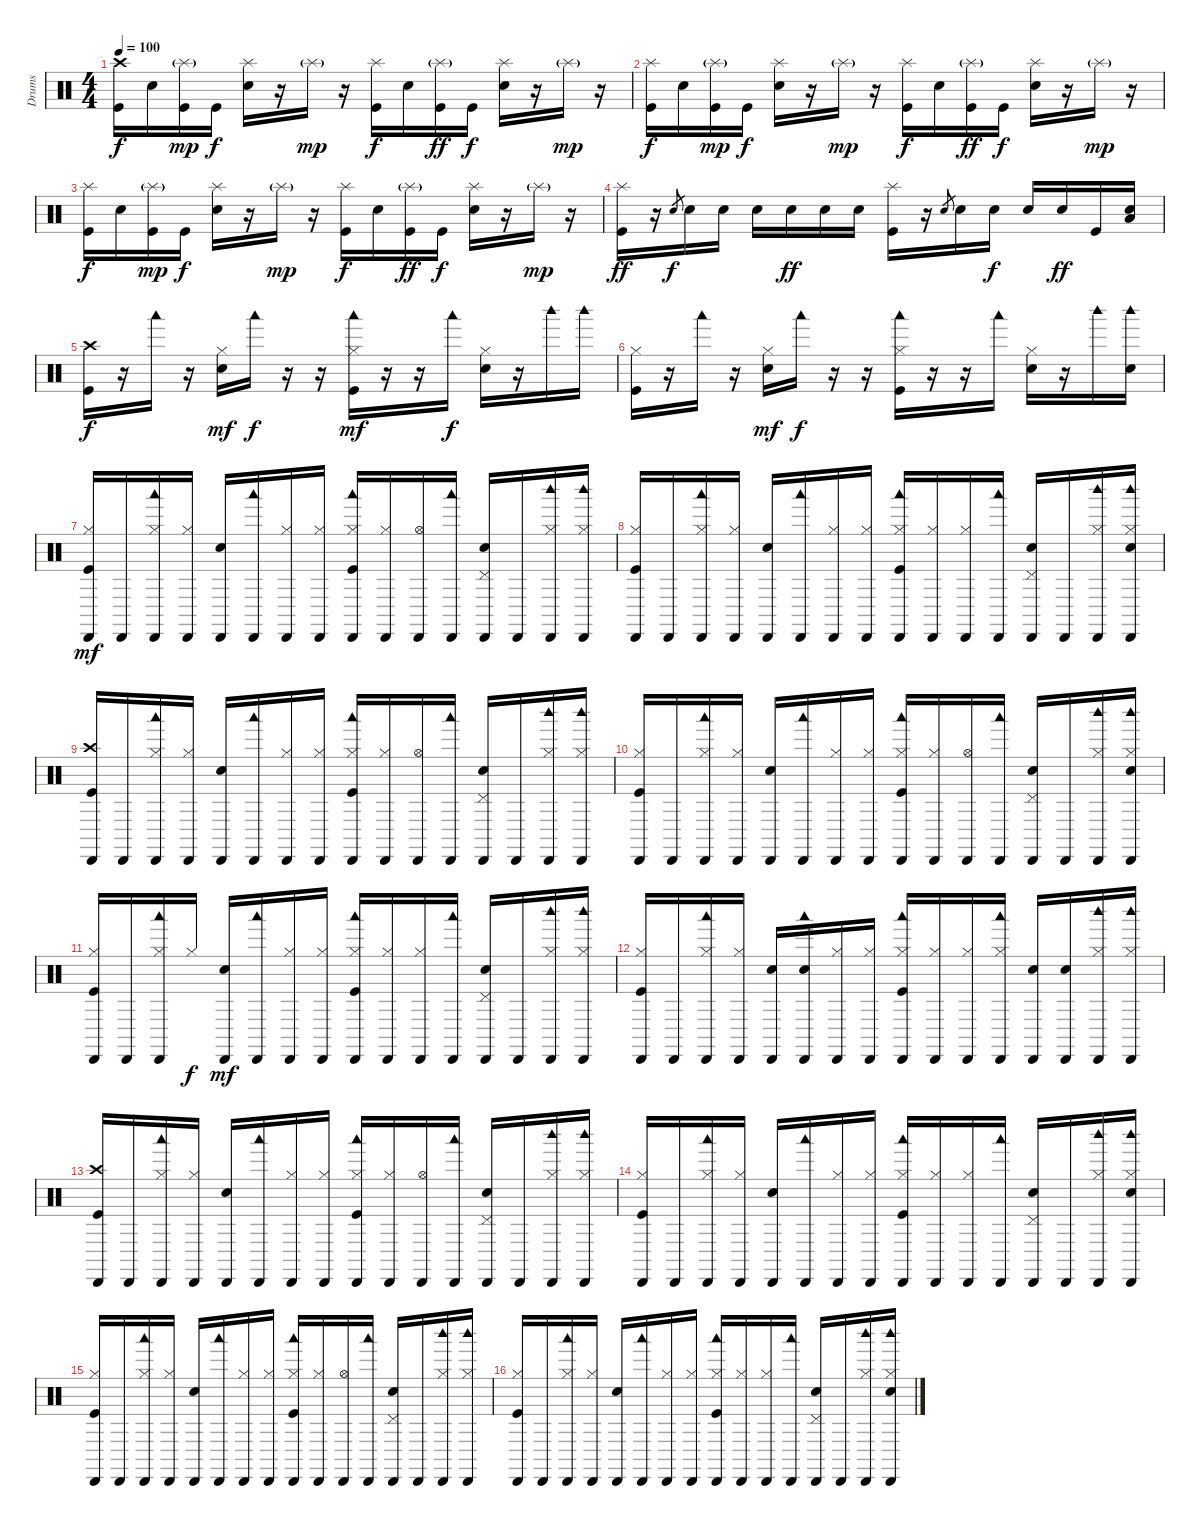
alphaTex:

\track ("Drums" "Drums") {instrument percussion}
\staff {score}
\articulation defaults
\ts (4 4)
\tempo 100
\clef neutral
\ks c
("Crash high (hit)" "Kick (hit)").16{dy f} "Snare (hit) 2".16 ("Splash (hit)"{g} "Kick (hit)").16{dy mp} "Kick (hit)".16{dy f} ("Splash (hit)" "Snare (hit) 2").16 r.16 "Splash (hit)"{g}.16{dy mp} r.16 ("Splash (hit)" "Kick (hit)").16{dy f} "Snare (hit) 2".16 ("Splash (hit)"{g} "Kick (hit)").16{dy ff} "Kick (hit)".16{dy f} ("Splash (hit)" "Snare (hit) 2").16 r.16 "Splash (hit)"{g}.16{dy mp} r.16 |
("Splash (hit)" "Kick (hit)").16{dy f} "Snare (hit) 2".16 ("Splash (hit)"{g} "Kick (hit)").16{dy mp} "Kick (hit)".16{dy f} ("Splash (hit)" "Snare (hit) 2").16 r.16 "Splash (hit)"{g}.16{dy mp} r.16 ("Splash (hit)" "Kick (hit)").16{dy f} "Snare (hit) 2".16 ("Splash (hit)"{g} "Kick (hit)").16{dy ff} "Kick (hit)".16{dy f} ("Splash (hit)" "Snare (hit) 2").16 r.16 "Splash (hit)"{g}.16{dy mp} r.16 |
("Splash (hit)" "Kick (hit)").16{dy f} "Snare (hit) 2".16 ("Splash (hit)"{g} "Kick (hit)").16{dy mp} "Kick (hit)".16{dy f} ("Splash (hit)" "Snare (hit) 2").16 r.16 "Splash (hit)"{g}.16{dy mp} r.16 ("Splash (hit)" "Kick (hit)").16{dy f} "Snare (hit) 2".16 ("Splash (hit)"{g} "Kick (hit)").16{dy ff} "Kick (hit)".16{dy f} ("Splash (hit)" "Snare (hit) 2").16 r.16 "Splash (hit)"{g}.16{dy mp} r.16 |
("Splash (hit)" "Kick (hit)").16{dy ff} r.16 "Snare (hit) 2".8{gr dy f} "Snare (hit) 2".16 "Snare (hit) 2".16 "Snare (hit) 2".16 "Snare (hit) 2".16{dy ff} "Snare (hit) 2".16 "Snare (hit) 2".16 ("Splash (hit)" "Kick (hit)").16 r.16 "Snare (hit) 2".8{gr} "Snare (hit) 2".16 "Snare (hit) 2".16{dy f} "Snare (hit) 2".16 "Snare (hit) 2".16{dy ff} "Kick (hit)".16 ("Low Floor Tom (hit)" "Snare (hit) 2").16 |
("Kick (hit)" "Crash high (hit)").16{dy f} r.16 "Woodblock low (hit)".16 r.16 ("Snare (hit) 2" "Hi-Hat (closed)").16{dy mf} "Woodblock low (hit)".16{dy f} r.16 r.16 ("Kick (hit)" "Hi-Hat (closed)" "Woodblock low (hit)").16{dy mf} r.16 r.16 "Woodblock low (hit)".16{dy f} ("Snare (hit) 2" "Hi-Hat (closed)").16 r.16 "Woodblock high (hit)".16 "Woodblock high (hit)".16 |
("Kick (hit)" "Hi-Hat (closed)").16 r.16 "Woodblock low (hit)".16 r.16 ("Snare (hit) 2" "Hi-Hat (closed)").16{dy mf} "Woodblock low (hit)".16{dy f} r.16 r.16 ("Kick (hit)" "Hi-Hat (closed)" "Woodblock low (hit)").16 r.16 r.16 "Woodblock low (hit)".16 ("Snare (hit) 2" "Hi-Hat (closed)").16 r.16 "Woodblock high (hit)".16 ("Snare (hit) 2" "Woodblock high (hit)").16 |
("Kick (hit)" "Hi-Hat (closed)" "Cabasa (hit)").16{dy mf} "Cabasa (hit)".16 ("Hi-Hat (closed)" "Woodblock low (hit)" "Cabasa (hit)").16 ("Hi-Hat (closed)" "Cabasa (hit)").16 ("Snare (hit) 2" "Cabasa (hit)").16 ("Woodblock low (hit)" "Cabasa (hit)").16 ("Hi-Hat (closed)" "Cabasa (hit)").16 ("Hi-Hat (closed)" "Cabasa (hit)").16 ("Kick (hit)" "Hi-Hat (closed)" "Woodblock low (hit)" "Cabasa (hit)").16 ("Hi-Hat (closed)" "Cabasa (hit)").16 ("Hi-Hat (open)" "Cabasa (hit)").16 ("Woodblock low (hit)" "Cabasa (hit)").16 ("Snare (hit) 2" "Pedal Hi-Hat (hit)" "Cabasa (hit)").16 "Cabasa (hit)".16 ("Hi-Hat (closed)" "Woodblock high (hit)" "Cabasa (hit)").16 ("Hi-Hat (closed)" "Woodblock high (hit)" "Cabasa (hit)").16 |
("Kick (hit)" "Hi-Hat (closed)" "Cabasa (hit)").16 "Cabasa (hit)".16 ("Hi-Hat (closed)" "Woodblock low (hit)" "Cabasa (hit)").16 ("Hi-Hat (closed)" "Cabasa (hit)").16 ("Snare (hit) 2" "Cabasa (hit)").16 ("Woodblock low (hit)" "Cabasa (hit)").16 ("Hi-Hat (closed)" "Cabasa (hit)").16 ("Hi-Hat (closed)" "Cabasa (hit)").16 ("Kick (hit)" "Hi-Hat (closed)" "Woodblock low (hit)" "Cabasa (hit)").16 ("Hi-Hat (closed)" "Cabasa (hit)").16 ("Hi-Hat (closed)" "Cabasa (hit)").16 ("Woodblock low (hit)" "Cabasa (hit)").16 ("Snare (hit) 2" "Pedal Hi-Hat (hit)" "Cabasa (hit)").16 "Cabasa (hit)".16 ("Hi-Hat (closed)" "Woodblock high (hit)" "Cabasa (hit)").16 ("Snare (hit) 2" "Hi-Hat (closed)" "Woodblock high (hit)" "Cabasa (hit)").16 |
("Kick (hit)" "Crash high (hit)" "Cabasa (hit)").16 "Cabasa (hit)".16 ("Hi-Hat (closed)" "Woodblock low (hit)" "Cabasa (hit)").16 ("Hi-Hat (closed)" "Cabasa (hit)").16 ("Snare (hit) 2" "Cabasa (hit)").16 ("Woodblock low (hit)" "Cabasa (hit)").16 ("Hi-Hat (closed)" "Cabasa (hit)").16 ("Hi-Hat (closed)" "Cabasa (hit)").16 ("Kick (hit)" "Hi-Hat (closed)" "Woodblock low (hit)" "Cabasa (hit)").16 ("Hi-Hat (closed)" "Cabasa (hit)").16 ("Hi-Hat (open)" "Cabasa (hit)").16 ("Woodblock low (hit)" "Cabasa (hit)").16 ("Snare (hit) 2" "Pedal Hi-Hat (hit)" "Cabasa (hit)").16 "Cabasa (hit)".16 ("Hi-Hat (closed)" "Woodblock high (hit)" "Cabasa (hit)").16 ("Hi-Hat (closed)" "Woodblock high (hit)" "Cabasa (hit)").16 |
("Kick (hit)" "Hi-Hat (closed)" "Cabasa (hit)").16 "Cabasa (hit)".16 ("Hi-Hat (closed)" "Woodblock low (hit)" "Cabasa (hit)").16 ("Hi-Hat (closed)" "Cabasa (hit)").16 ("Snare (hit) 2" "Cabasa (hit)").16 ("Woodblock low (hit)" "Cabasa (hit)").16 ("Hi-Hat (closed)" "Cabasa (hit)").16 ("Hi-Hat (closed)" "Cabasa (hit)").16 ("Kick (hit)" "Hi-Hat (closed)" "Woodblock low (hit)" "Cabasa (hit)").16 ("Hi-Hat (closed)" "Cabasa (hit)").16 ("Hi-Hat (open)" "Cabasa (hit)").16 ("Woodblock low (hit)" "Cabasa (hit)").16 ("Snare (hit) 2" "Pedal Hi-Hat (hit)" "Cabasa (hit)").16 "Cabasa (hit)".16 ("Hi-Hat (closed)" "Woodblock high (hit)" "Cabasa (hit)").16 ("Snare (hit) 2" "Hi-Hat (closed)" "Woodblock high (hit)" "Cabasa (hit)").16 |
("Kick (hit)" "Hi-Hat (closed)" "Cabasa (hit)").16 "Cabasa (hit)".16 ("Hi-Hat (closed)" "Woodblock low (hit)" "Cabasa (hit)").16 "Hi-Hat (closed)".16{dy f} ("Snare (hit) 2" "Cabasa (hit)").16{dy mf} ("Woodblock low (hit)" "Cabasa (hit)").16 ("Hi-Hat (closed)" "Cabasa (hit)").16 ("Hi-Hat (closed)" "Cabasa (hit)").16 ("Kick (hit)" "Hi-Hat (closed)" "Woodblock low (hit)" "Cabasa (hit)").16 ("Hi-Hat (closed)" "Cabasa (hit)").16 ("Hi-Hat (closed)" "Cabasa (hit)").16 ("Woodblock low (hit)" "Cabasa (hit)").16 ("Snare (hit) 2" "Pedal Hi-Hat (hit)" "Cabasa (hit)").16 "Cabasa (hit)".16 ("Hi-Hat (closed)" "Woodblock high (hit)" "Cabasa (hit)").16 ("Hi-Hat (closed)" "Woodblock high (hit)" "Cabasa (hit)").16 |
("Kick (hit)" "Hi-Hat (closed)" "Cabasa (hit)").16 "Cabasa (hit)".16 ("Hi-Hat (closed)" "Woodblock low (hit)" "Cabasa (hit)").16 ("Hi-Hat (closed)" "Cabasa (hit)").16 ("Snare (hit) 2" "Cabasa (hit)").16 ("Snare (hit) 2" "Woodblock low (hit)" "Cabasa (hit)").16 ("Hi-Hat (closed)" "Cabasa (hit)").16 ("Hi-Hat (closed)" "Cabasa (hit)").16 ("Kick (hit)" "Hi-Hat (closed)" "Woodblock low (hit)" "Cabasa (hit)").16 ("Hi-Hat (closed)" "Cabasa (hit)").16 ("Hi-Hat (closed)" "Cabasa (hit)").16 ("Hi-Hat (closed)" "Woodblock low (hit)" "Cabasa (hit)").16 ("Snare (hit) 2" "Cabasa (hit)").16 ("Snare (hit) 2" "Cabasa (hit)").16 ("Hi-Hat (closed)" "Woodblock high (hit)" "Cabasa (hit)").16 ("Hi-Hat (closed)" "Woodblock high (hit)" "Cabasa (hit)").16 |
("Kick (hit)" "Crash high (hit)" "Cabasa (hit)").16 "Cabasa (hit)".16 ("Hi-Hat (closed)" "Woodblock low (hit)" "Cabasa (hit)").16 ("Hi-Hat (closed)" "Cabasa (hit)").16 ("Snare (hit) 2" "Cabasa (hit)").16 ("Woodblock low (hit)" "Cabasa (hit)").16 ("Hi-Hat (closed)" "Cabasa (hit)").16 ("Hi-Hat (closed)" "Cabasa (hit)").16 ("Kick (hit)" "Hi-Hat (closed)" "Woodblock low (hit)" "Cabasa (hit)").16 ("Hi-Hat (closed)" "Cabasa (hit)").16 ("Hi-Hat (open)" "Cabasa (hit)").16 ("Woodblock low (hit)" "Cabasa (hit)").16 ("Snare (hit) 2" "Pedal Hi-Hat (hit)" "Cabasa (hit)").16 "Cabasa (hit)".16 ("Hi-Hat (closed)" "Woodblock high (hit)" "Cabasa (hit)").16 ("Hi-Hat (closed)" "Woodblock high (hit)" "Cabasa (hit)").16 |
("Kick (hit)" "Hi-Hat (closed)" "Cabasa (hit)").16 "Cabasa (hit)".16 ("Hi-Hat (closed)" "Woodblock low (hit)" "Cabasa (hit)").16 ("Hi-Hat (closed)" "Cabasa (hit)").16 ("Snare (hit) 2" "Cabasa (hit)").16 ("Woodblock low (hit)" "Cabasa (hit)").16 ("Hi-Hat (closed)" "Cabasa (hit)").16 ("Hi-Hat (closed)" "Cabasa (hit)").16 ("Kick (hit)" "Hi-Hat (closed)" "Woodblock low (hit)" "Cabasa (hit)").16 ("Hi-Hat (closed)" "Cabasa (hit)").16 ("Hi-Hat (closed)" "Cabasa (hit)").16 ("Woodblock low (hit)" "Cabasa (hit)").16 ("Snare (hit) 2" "Pedal Hi-Hat (hit)" "Cabasa (hit)").16 "Cabasa (hit)".16 ("Hi-Hat (closed)" "Woodblock high (hit)" "Cabasa (hit)").16 ("Snare (hit) 2" "Hi-Hat (closed)" "Woodblock high (hit)" "Cabasa (hit)").16 |
("Kick (hit)" "Hi-Hat (closed)" "Cabasa (hit)").16 "Cabasa (hit)".16 ("Hi-Hat (closed)" "Woodblock low (hit)" "Cabasa (hit)").16 ("Hi-Hat (closed)" "Cabasa (hit)").16 ("Snare (hit) 2" "Cabasa (hit)").16 ("Woodblock low (hit)" "Cabasa (hit)").16 ("Hi-Hat (closed)" "Cabasa (hit)").16 ("Hi-Hat (closed)" "Cabasa (hit)").16 ("Kick (hit)" "Hi-Hat (closed)" "Woodblock low (hit)" "Cabasa (hit)").16 ("Hi-Hat (closed)" "Cabasa (hit)").16 ("Hi-Hat (open)" "Cabasa (hit)").16 ("Woodblock low (hit)" "Cabasa (hit)").16 ("Snare (hit) 2" "Pedal Hi-Hat (hit)" "Cabasa (hit)").16 "Cabasa (hit)".16 ("Hi-Hat (closed)" "Woodblock high (hit)" "Cabasa (hit)").16 ("Hi-Hat (closed)" "Woodblock high (hit)" "Cabasa (hit)").16 |
("Kick (hit)" "Hi-Hat (closed)" "Cabasa (hit)").16 "Cabasa (hit)".16 ("Hi-Hat (closed)" "Woodblock low (hit)" "Cabasa (hit)").16 ("Hi-Hat (closed)" "Cabasa (hit)").16 ("Snare (hit) 2" "Cabasa (hit)").16 ("Woodblock low (hit)" "Cabasa (hit)").16 ("Hi-Hat (closed)" "Cabasa (hit)").16 ("Hi-Hat (closed)" "Cabasa (hit)").16 ("Kick (hit)" "Hi-Hat (closed)" "Woodblock low (hit)" "Cabasa (hit)").16 ("Hi-Hat (closed)" "Cabasa (hit)").16 ("Hi-Hat (closed)" "Cabasa (hit)").16 ("Woodblock low (hit)" "Cabasa (hit)").16 ("Snare (hit) 2" "Pedal Hi-Hat (hit)" "Cabasa (hit)").16 "Cabasa (hit)".16 ("Hi-Hat (closed)" "Woodblock high (hit)" "Cabasa (hit)").16 ("Snare (hit) 2" "Hi-Hat (closed)" "Woodblock high (hit)" "Cabasa (hit)").16
